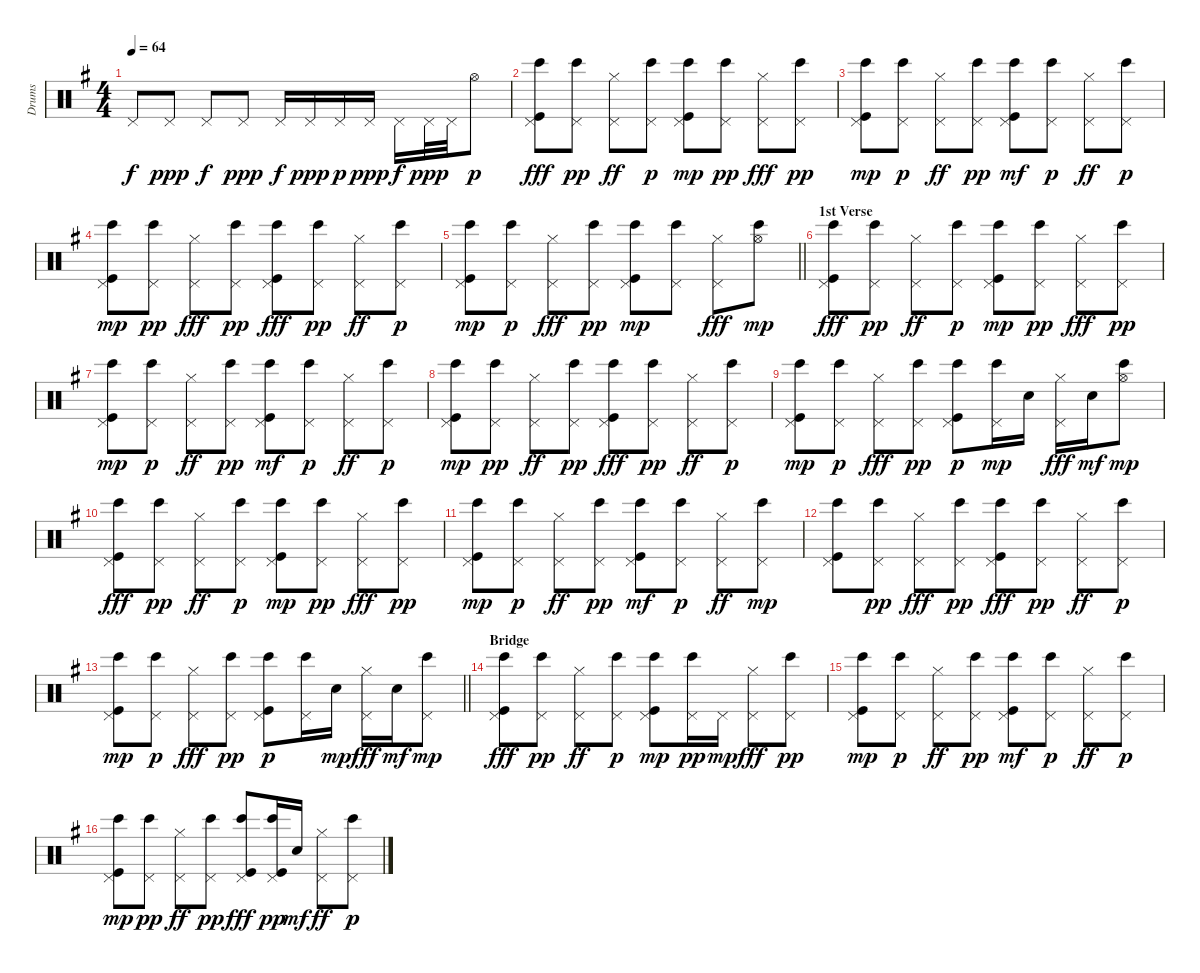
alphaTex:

\track ("Drums" "Drums") {instrument percussion}
\staff {score}
\articulation defaults
\ts (4 4)
\tempo 64
\clef neutral
\ks g "Pedal Hi-Hat (hit)".8{dy f} "Pedal Hi-Hat (hit)".8{dy ppp} "Pedal Hi-Hat (hit)".8{dy f} "Pedal Hi-Hat (hit)".8{dy ppp} "Pedal Hi-Hat (hit)".16{dy f} "Pedal Hi-Hat (hit)".16{dy ppp} "Pedal Hi-Hat (hit)".16{dy p} "Pedal Hi-Hat (hit)".16{dy ppp} "Pedal Hi-Hat (hit)".16{dy f} "Pedal Hi-Hat (hit)".32{dy ppp} "Pedal Hi-Hat (hit)".32 "Hi-Hat (open)".8{dy p}
|
("Bongo High (hit)" "Kick (hit)" "Pedal Hi-Hat (hit)").8{dy fff} ("Bongo High (hit)" "Pedal Hi-Hat (hit)").8{dy pp} ("Hi-Hat (closed)" "Pedal Hi-Hat (hit)").8{dy ff} ("Bongo High (hit)" "Pedal Hi-Hat (hit)").8{dy p} ("Bongo High (hit)" "Kick (hit)" "Pedal Hi-Hat (hit)").8{dy mp} ("Bongo High (hit)" "Pedal Hi-Hat (hit)").8{dy pp} ("Hi-Hat (closed)" "Pedal Hi-Hat (hit)").8{dy fff} ("Bongo High (hit)" "Pedal Hi-Hat (hit)").8{dy pp} |
("Bongo High (hit)" "Kick (hit)" "Pedal Hi-Hat (hit)").8{dy mp} ("Bongo High (hit)" "Pedal Hi-Hat (hit)").8{dy p} ("Hi-Hat (closed)" "Pedal Hi-Hat (hit)").8{dy ff} ("Bongo High (hit)" "Pedal Hi-Hat (hit)").8{dy pp} ("Bongo High (hit)" "Kick (hit)" "Pedal Hi-Hat (hit)").8{dy mf} ("Bongo High (hit)" "Pedal Hi-Hat (hit)").8{dy p} ("Hi-Hat (closed)" "Pedal Hi-Hat (hit)").8{dy ff} ("Bongo High (hit)" "Pedal Hi-Hat (hit)").8{dy p} |
("Bongo High (hit)" "Kick (hit)" "Pedal Hi-Hat (hit)").8{dy mp} ("Bongo High (hit)" "Pedal Hi-Hat (hit)").8{dy pp} ("Hi-Hat (closed)" "Pedal Hi-Hat (hit)").8{dy fff} ("Bongo High (hit)" "Pedal Hi-Hat (hit)").8{dy pp} ("Bongo High (hit)" "Kick (hit)" "Pedal Hi-Hat (hit)").8{dy fff} ("Bongo High (hit)" "Pedal Hi-Hat (hit)").8{dy pp} ("Hi-Hat (closed)" "Pedal Hi-Hat (hit)").8{dy ff} ("Bongo High (hit)" "Pedal Hi-Hat (hit)").8{dy p} |
\barLineRight lightlight
("Bongo High (hit)" "Kick (hit)" "Pedal Hi-Hat (hit)").8{dy mp} ("Bongo High (hit)" "Pedal Hi-Hat (hit)").8{dy p} ("Hi-Hat (closed)" "Pedal Hi-Hat (hit)").8{dy fff} ("Bongo High (hit)" "Pedal Hi-Hat (hit)").8{dy pp} ("Bongo High (hit)" "Kick (hit)" "Pedal Hi-Hat (hit)").8{dy mp} ("Bongo High (hit)" "Pedal Hi-Hat (hit)").8 ("Hi-Hat (closed)" "Pedal Hi-Hat (hit)").8{dy fff} ("Bongo High (hit)" "Hi-Hat (open)").8{dy mp} |
\section ("" "1st Verse")
("Bongo High (hit)" "Kick (hit)" "Pedal Hi-Hat (hit)").8{dy fff} ("Bongo High (hit)" "Pedal Hi-Hat (hit)").8{dy pp} ("Hi-Hat (closed)" "Pedal Hi-Hat (hit)").8{dy ff} ("Bongo High (hit)" "Pedal Hi-Hat (hit)").8{dy p} ("Bongo High (hit)" "Kick (hit)" "Pedal Hi-Hat (hit)").8{dy mp} ("Bongo High (hit)" "Pedal Hi-Hat (hit)").8{dy pp} ("Hi-Hat (closed)" "Pedal Hi-Hat (hit)").8{dy fff} ("Bongo High (hit)" "Pedal Hi-Hat (hit)").8{dy pp} |
("Bongo High (hit)" "Kick (hit)" "Pedal Hi-Hat (hit)").8{dy mp} ("Bongo High (hit)" "Pedal Hi-Hat (hit)").8{dy p} ("Hi-Hat (closed)" "Pedal Hi-Hat (hit)").8{dy ff} ("Bongo High (hit)" "Pedal Hi-Hat (hit)").8{dy pp} ("Bongo High (hit)" "Kick (hit)" "Pedal Hi-Hat (hit)").8{dy mf} ("Bongo High (hit)" "Pedal Hi-Hat (hit)").8{dy p} ("Hi-Hat (closed)" "Pedal Hi-Hat (hit)").8{dy ff} ("Bongo High (hit)" "Pedal Hi-Hat (hit)").8{dy p} |
("Bongo High (hit)" "Kick (hit)" "Pedal Hi-Hat (hit)").8{dy mp} ("Bongo High (hit)" "Pedal Hi-Hat (hit)").8{dy pp} ("Hi-Hat (closed)" "Pedal Hi-Hat (hit)").8{dy ff} ("Bongo High (hit)" "Pedal Hi-Hat (hit)").8{dy pp} ("Bongo High (hit)" "Kick (hit)" "Pedal Hi-Hat (hit)").8{dy fff} ("Bongo High (hit)" "Pedal Hi-Hat (hit)").8{dy pp} ("Hi-Hat (closed)" "Pedal Hi-Hat (hit)").8{dy ff} ("Bongo High (hit)" "Pedal Hi-Hat (hit)").8{dy p} |
("Bongo High (hit)" "Kick (hit)" "Pedal Hi-Hat (hit)").8{dy mp} ("Bongo High (hit)" "Pedal Hi-Hat (hit)").8{dy p} ("Hi-Hat (closed)" "Pedal Hi-Hat (hit)").8{dy fff} ("Bongo High (hit)" "Pedal Hi-Hat (hit)").8{dy pp} ("Bongo High (hit)" "Kick (hit)" "Pedal Hi-Hat (hit)").8{dy p} ("Bongo High (hit)" "Pedal Hi-Hat (hit)").16{dy mp} "Snare (hit)".16 ("Hi-Hat (closed)" "Pedal Hi-Hat (hit)").16{dy fff} "Snare (hit)".16{dy mf} ("Bongo High (hit)" "Hi-Hat (open)").8{dy mp} |
("Bongo High (hit)" "Kick (hit)" "Pedal Hi-Hat (hit)").8{dy fff} ("Bongo High (hit)" "Pedal Hi-Hat (hit)").8{dy pp} ("Hi-Hat (closed)" "Pedal Hi-Hat (hit)").8{dy ff} ("Bongo High (hit)" "Pedal Hi-Hat (hit)").8{dy p} ("Bongo High (hit)" "Kick (hit)" "Pedal Hi-Hat (hit)").8{dy mp} ("Bongo High (hit)" "Pedal Hi-Hat (hit)").8{dy pp} ("Hi-Hat (closed)" "Pedal Hi-Hat (hit)").8{dy fff} ("Bongo High (hit)" "Pedal Hi-Hat (hit)").8{dy pp} |
("Bongo High (hit)" "Kick (hit)" "Pedal Hi-Hat (hit)").8{dy mp} ("Bongo High (hit)" "Pedal Hi-Hat (hit)").8{dy p} ("Hi-Hat (closed)" "Pedal Hi-Hat (hit)").8{dy ff} ("Bongo High (hit)" "Pedal Hi-Hat (hit)").8{dy pp} ("Bongo High (hit)" "Kick (hit)" "Pedal Hi-Hat (hit)").8{dy mf} ("Bongo High (hit)" "Pedal Hi-Hat (hit)").8{dy p} ("Hi-Hat (closed)" "Pedal Hi-Hat (hit)").8{dy ff} ("Bongo High (hit)" "Pedal Hi-Hat (hit)").8{dy mp} |
("Bongo High (hit)" "Kick (hit)" "Pedal Hi-Hat (hit)").8 ("Bongo High (hit)" "Pedal Hi-Hat (hit)").8{dy pp} ("Hi-Hat (closed)" "Pedal Hi-Hat (hit)").8{dy fff} ("Bongo High (hit)" "Pedal Hi-Hat (hit)").8{dy pp} ("Bongo High (hit)" "Kick (hit)" "Pedal Hi-Hat (hit)").8{dy fff} ("Bongo High (hit)" "Pedal Hi-Hat (hit)").8{dy pp} ("Hi-Hat (closed)" "Pedal Hi-Hat (hit)").8{dy ff} ("Bongo High (hit)" "Pedal Hi-Hat (hit)").8{dy p} |
\barLineRight lightlight
("Bongo High (hit)" "Kick (hit)" "Pedal Hi-Hat (hit)").8{dy mp} ("Bongo High (hit)" "Pedal Hi-Hat (hit)").8{dy p} ("Hi-Hat (closed)" "Pedal Hi-Hat (hit)").8{dy fff} ("Bongo High (hit)" "Pedal Hi-Hat (hit)").8{dy pp} ("Bongo High (hit)" "Kick (hit)" "Pedal Hi-Hat (hit)").8{dy p} ("Bongo High (hit)" "Pedal Hi-Hat (hit)").16 "Snare (hit)".16{dy mp} ("Hi-Hat (closed)" "Pedal Hi-Hat (hit)").16{dy fff} "Snare (hit)".16{dy mf} ("Bongo High (hit)" "Pedal Hi-Hat (hit)").8{dy mp} |
\section ("" "Bridge")
("Bongo High (hit)" "Kick (hit)" "Pedal Hi-Hat (hit)").8{dy fff} ("Bongo High (hit)" "Pedal Hi-Hat (hit)").8{dy pp} ("Hi-Hat (closed)" "Pedal Hi-Hat (hit)").8{dy ff} ("Bongo High (hit)" "Pedal Hi-Hat (hit)").8{dy p} ("Bongo High (hit)" "Kick (hit)" "Pedal Hi-Hat (hit)").8{dy mp} ("Bongo High (hit)" "Pedal Hi-Hat (hit)").16{dy pp} "Pedal Hi-Hat (hit)".16{dy mp} ("Hi-Hat (closed)" "Pedal Hi-Hat (hit)").8{dy fff} ("Bongo High (hit)" "Pedal Hi-Hat (hit)").8{dy pp} |
("Bongo High (hit)" "Kick (hit)" "Pedal Hi-Hat (hit)").8{dy mp} ("Bongo High (hit)" "Pedal Hi-Hat (hit)").8{dy p} ("Hi-Hat (closed)" "Pedal Hi-Hat (hit)").8{dy ff} ("Bongo High (hit)" "Pedal Hi-Hat (hit)").8{dy pp} ("Bongo High (hit)" "Kick (hit)" "Pedal Hi-Hat (hit)").8{dy mf} ("Bongo High (hit)" "Pedal Hi-Hat (hit)").8{dy p} ("Hi-Hat (closed)" "Pedal Hi-Hat (hit)").8{dy ff} ("Bongo High (hit)" "Pedal Hi-Hat (hit)").8{dy p} |
("Bongo High (hit)" "Kick (hit)" "Pedal Hi-Hat (hit)").8{dy mp} ("Bongo High (hit)" "Pedal Hi-Hat (hit)").8{dy pp} ("Hi-Hat (closed)" "Pedal Hi-Hat (hit)").8{dy ff} ("Bongo High (hit)" "Pedal Hi-Hat (hit)").8{dy pp} ("Bongo High (hit)" "Kick (hit)" "Pedal Hi-Hat (hit)").8{dy fff} ("Bongo High (hit)" "Kick (hit)" "Pedal Hi-Hat (hit)").16{dy pp} "Snare (hit)".16{dy mf} ("Hi-Hat (closed)" "Pedal Hi-Hat (hit)").8{dy ff} ("Bongo High (hit)" "Pedal Hi-Hat (hit)").8{dy p}
